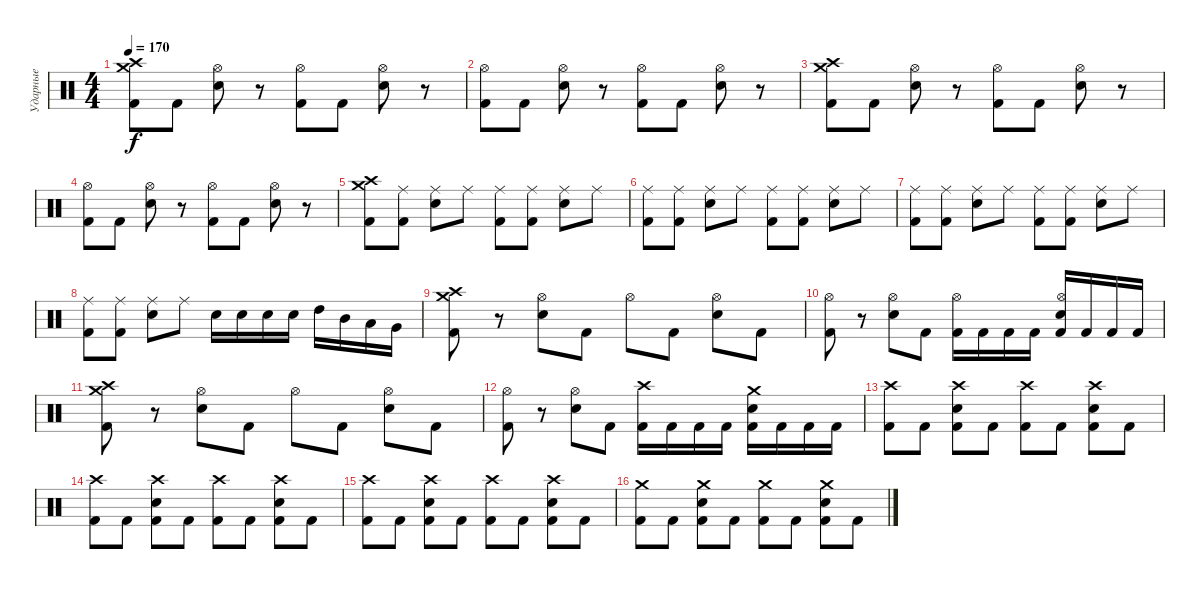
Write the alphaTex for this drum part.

\track ("Ударные" "Ударные") {instrument percussion}
\staff {score}
\articulation defaults
\ts (4 4)
\tempo 170
\clef neutral
\ks c
("Crash medium (hit)" "Crash high (hit)" "Kick (hit) 2").8{dy f} "Kick (hit) 2".8 ("Hi-Hat (open)" "Electric Snare (hit)").8 r.8 ("Hi-Hat (open)" "Kick (hit) 2").8 "Kick (hit) 2".8 ("Hi-Hat (open)" "Electric Snare (hit)").8 r.8 |
("Hi-Hat (open)" "Kick (hit) 2").8 "Kick (hit) 2".8 ("Hi-Hat (open)" "Electric Snare (hit)").8 r.8 ("Hi-Hat (open)" "Kick (hit) 2").8 "Kick (hit) 2".8 ("Hi-Hat (open)" "Electric Snare (hit)").8 r.8 |
("Crash medium (hit)" "Crash high (hit)" "Kick (hit) 2").8 "Kick (hit) 2".8 ("Hi-Hat (open)" "Electric Snare (hit)").8 r.8 ("Hi-Hat (open)" "Kick (hit) 2").8 "Kick (hit) 2".8 ("Hi-Hat (open)" "Electric Snare (hit)").8 r.8 |
("Hi-Hat (open)" "Kick (hit) 2").8 "Kick (hit) 2".8 ("Hi-Hat (open)" "Electric Snare (hit)").8 r.8 ("Hi-Hat (open)" "Kick (hit) 2").8 "Kick (hit) 2".8 ("Hi-Hat (open)" "Electric Snare (hit)").8 r.8 |
("Crash medium (hit)" "Crash high (hit)" "Kick (hit) 2").8 ("Ride (middle)" "Kick (hit) 2").8 ("Ride (middle)" "Electric Snare (hit)").8 "Ride (middle)".8 ("Ride (middle)" "Kick (hit) 2").8 ("Ride (middle)" "Kick (hit) 2").8 ("Ride (middle)" "Electric Snare (hit)").8 "Ride (middle)".8 |
("Ride (middle)" "Kick (hit) 2").8 ("Ride (middle)" "Kick (hit) 2").8 ("Ride (middle)" "Electric Snare (hit)").8 "Ride (middle)".8 ("Ride (middle)" "Kick (hit) 2").8 ("Ride (middle)" "Kick (hit) 2").8 ("Ride (middle)" "Electric Snare (hit)").8 "Ride (middle)".8 |
("Ride (middle)" "Kick (hit) 2").8 ("Ride (middle)" "Kick (hit) 2").8 ("Ride (middle)" "Electric Snare (hit)").8 "Ride (middle)".8 ("Ride (middle)" "Kick (hit) 2").8 ("Ride (middle)" "Kick (hit) 2").8 ("Ride (middle)" "Electric Snare (hit)").8 "Ride (middle)".8 |
("Ride (middle)" "Kick (hit) 2").8 ("Ride (middle)" "Kick (hit) 2").8 ("Ride (middle)" "Electric Snare (hit)").8 "Ride (middle)".8 "Electric Snare (hit)".16 "Electric Snare (hit)".16 "Electric Snare (hit)".16 "Electric Snare (hit)".16 "High Tom (hit)".16 "Mid Tom (hit)".16 "Low Tom (hit)".16 "Very Low Tom (hit)".16 |
("Crash medium (hit)" "Crash high (hit)" "Kick (hit) 2").8 r.8 ("Hi-Hat (open)" "Electric Snare (hit)").8 "Kick (hit) 2".8 "Hi-Hat (open)".8 "Kick (hit) 2".8 ("Hi-Hat (open)" "Electric Snare (hit)").8 "Kick (hit) 2".8 |
("Hi-Hat (open)" "Kick (hit) 2").8 r.8 ("Hi-Hat (open)" "Electric Snare (hit)").8 "Kick (hit) 2".8 ("Hi-Hat (open)" "Kick (hit) 2").16 "Kick (hit) 2".16 "Kick (hit) 2".16 "Kick (hit) 2".16 ("Hi-Hat (open)" "Electric Snare (hit)" "Kick (hit) 2").16 "Kick (hit) 2".16 "Kick (hit) 2".16 "Kick (hit) 2".16 |
("Crash medium (hit)" "Crash high (hit)" "Kick (hit) 2").8 r.8 ("Hi-Hat (open)" "Electric Snare (hit)").8 "Kick (hit) 2".8 "Hi-Hat (open)".8 "Kick (hit) 2".8 ("Hi-Hat (open)" "Electric Snare (hit)").8 "Kick (hit) 2".8 |
("Hi-Hat (open)" "Kick (hit) 2").8 r.8 ("Hi-Hat (open)" "Electric Snare (hit)").8 "Kick (hit) 2".8 ("Crash high (hit)" "Kick (hit) 2").16 "Kick (hit) 2".16 "Kick (hit) 2".16 "Kick (hit) 2".16 ("Crash medium (hit)" "Electric Snare (hit)" "Kick (hit) 2").16 "Kick (hit) 2".16 "Kick (hit) 2".16 "Kick (hit) 2".16 |
("Crash high (hit)" "Kick (hit) 2").8 "Kick (hit) 2".8 ("Crash high (hit)" "Electric Snare (hit)" "Kick (hit) 2").8 "Kick (hit) 2".8 ("Crash high (hit)" "Kick (hit) 2").8 "Kick (hit) 2".8 ("Crash high (hit)" "Electric Snare (hit)" "Kick (hit) 2").8 "Kick (hit) 2".8 |
("Crash high (hit)" "Kick (hit) 2").8 "Kick (hit) 2".8 ("Crash high (hit)" "Electric Snare (hit)" "Kick (hit) 2").8 "Kick (hit) 2".8 ("Crash high (hit)" "Kick (hit) 2").8 "Kick (hit) 2".8 ("Crash high (hit)" "Electric Snare (hit)" "Kick (hit) 2").8 "Kick (hit) 2".8 |
("Crash high (hit)" "Kick (hit) 2").8 "Kick (hit) 2".8 ("Crash high (hit)" "Electric Snare (hit)" "Kick (hit) 2").8 "Kick (hit) 2".8 ("Crash high (hit)" "Kick (hit) 2").8 "Kick (hit) 2".8 ("Crash high (hit)" "Electric Snare (hit)" "Kick (hit) 2").8 "Kick (hit) 2".8 |
("Crash medium (hit)" "Kick (hit) 2").8 "Kick (hit) 2".8 ("Crash medium (hit)" "Electric Snare (hit)" "Kick (hit) 2").8 "Kick (hit) 2".8 ("Crash medium (hit)" "Kick (hit) 2").8 "Kick (hit) 2".8 ("Crash medium (hit)" "Electric Snare (hit)" "Kick (hit) 2").8 "Kick (hit) 2".8
